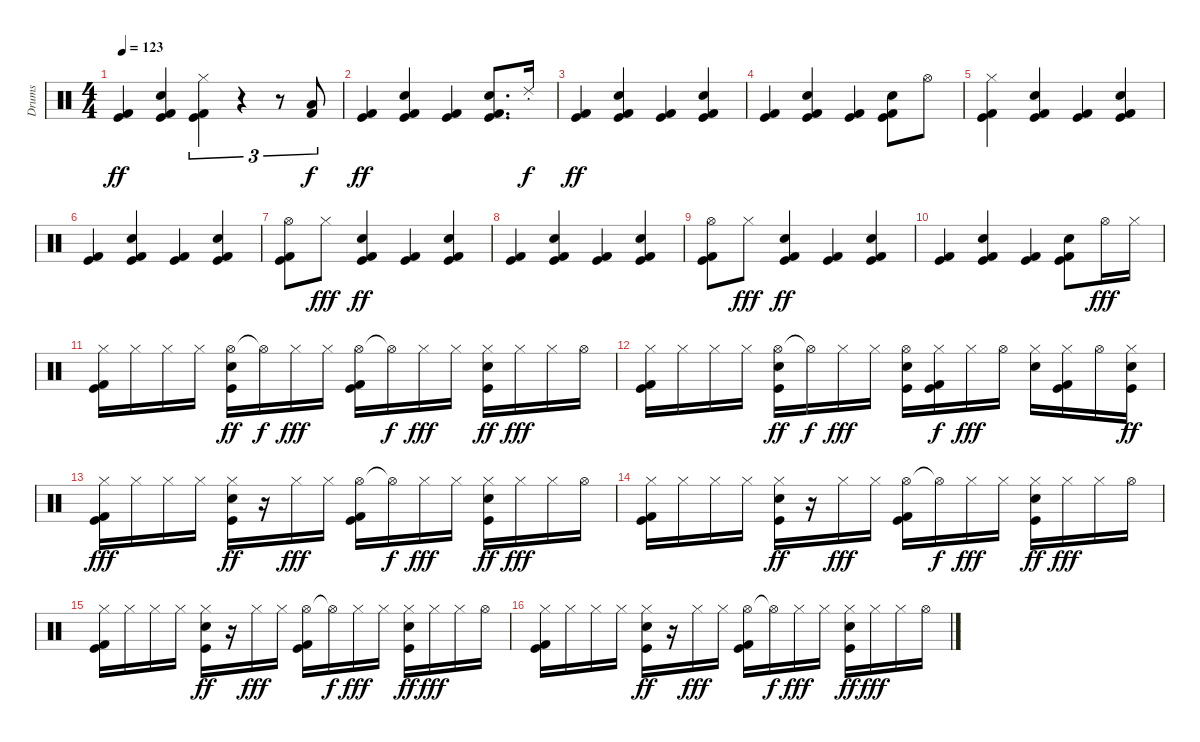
\track ("Drums" "Drums") {instrument percussion}
\staff {score}
\articulation defaults
\ts (4 4)
\tempo 123
\clef neutral
\ks c
("Kick (hit)" "Kick (hit) 2").4{dy ff} ("Snare (hit) 2" "Kick (hit)" "Kick (hit) 2").4 ("Hi-Hat (closed)" "Kick (hit)" "Kick (hit) 2").4{tu (3 2)} r.4{tu (3 2)} r.8{tu (3 2)} ("Low Floor Tom (hit)" "Kick (hit) 2").8{tu (3 2) dy f} |
("Kick (hit)" "Kick (hit) 2").4{dy ff} ("Snare (hit) 2" "Kick (hit)" "Kick (hit) 2").4 ("Kick (hit)" "Kick (hit) 2").4 ("Snare (hit) 2" "Kick (hit)" "Kick (hit) 2").8{d} "Ride (choke) 2".16{dy f} |
("Kick (hit)" "Kick (hit) 2").4{dy ff} ("Snare (hit) 2" "Kick (hit)" "Kick (hit) 2").4 ("Kick (hit)" "Kick (hit) 2").4 ("Snare (hit) 2" "Kick (hit)" "Kick (hit) 2").4 |
("Kick (hit)" "Kick (hit) 2").4 ("Snare (hit) 2" "Kick (hit)" "Kick (hit) 2").4 ("Kick (hit)" "Kick (hit) 2").4 ("Snare (hit) 2" "Kick (hit)" "Kick (hit) 2").8 "Hi-Hat (open)".8 |
("Hi-Hat (closed)" "Kick (hit)" "Kick (hit) 2").4 ("Snare (hit) 2" "Kick (hit)" "Kick (hit) 2").4 ("Kick (hit)" "Kick (hit) 2").4 ("Snare (hit) 2" "Kick (hit)" "Kick (hit) 2").4 |
("Kick (hit)" "Kick (hit) 2").4 ("Snare (hit) 2" "Kick (hit)" "Kick (hit) 2").4 ("Kick (hit)" "Kick (hit) 2").4 ("Snare (hit) 2" "Kick (hit)" "Kick (hit) 2").4 |
("Hi-Hat (open)" "Kick (hit)" "Kick (hit) 2").8 "Hi-Hat (closed)".8{dy fff} ("Snare (hit) 2" "Kick (hit)" "Kick (hit) 2").4{dy ff} ("Kick (hit)" "Kick (hit) 2").4 ("Snare (hit) 2" "Kick (hit)" "Kick (hit) 2").4 |
("Kick (hit)" "Kick (hit) 2").4 ("Snare (hit) 2" "Kick (hit)" "Kick (hit) 2").4 ("Kick (hit)" "Kick (hit) 2").4 ("Snare (hit) 2" "Kick (hit)" "Kick (hit) 2").4 |
("Hi-Hat (open)" "Kick (hit)" "Kick (hit) 2").8 "Hi-Hat (closed)".8{dy fff} ("Snare (hit) 2" "Kick (hit)" "Kick (hit) 2").4{dy ff} ("Kick (hit)" "Kick (hit) 2").4 ("Snare (hit) 2" "Kick (hit)" "Kick (hit) 2").4 |
("Kick (hit)" "Kick (hit) 2").4 ("Snare (hit) 2" "Kick (hit)" "Kick (hit) 2").4 ("Kick (hit)" "Kick (hit) 2").4 ("Snare (hit) 2" "Kick (hit)" "Kick (hit) 2").8 "Hi-Hat (open)".16{dy fff} "Hi-Hat (closed)".16 |
("Hi-Hat (closed)" "Kick (hit) 2" "Kick (hit)").16 "Hi-Hat (closed)".16 "Hi-Hat (closed)".16 "Hi-Hat (closed)".16 ("Hi-Hat (open)" "Snare (hit) 2" "Kick (hit)").16{dy ff} "Hi-Hat (open)"{t}.16{dy f} "Hi-Hat (closed)".16{dy fff} "Hi-Hat (closed)".16 ("Hi-Hat (open)" "Kick (hit) 2" "Kick (hit)").16 "Hi-Hat (open)"{t}.16{dy f} "Hi-Hat (closed)".16{dy fff} "Hi-Hat (closed)".16 ("Hi-Hat (closed)" "Snare (hit) 2" "Kick (hit)").16{dy ff} "Hi-Hat (closed)".16{dy fff} "Hi-Hat (closed)".16 "Hi-Hat (open)".16 |
("Hi-Hat (closed)" "Kick (hit) 2" "Kick (hit)").16 "Hi-Hat (closed)".16 "Hi-Hat (closed)".16 "Hi-Hat (closed)".16 ("Hi-Hat (open)" "Snare (hit) 2" "Kick (hit)").16{dy ff} "Hi-Hat (open)"{t}.16{dy f} "Hi-Hat (closed)".16{dy fff} "Hi-Hat (closed)".16 ("Hi-Hat (open)" "Snare (hit) 2" "Kick (hit)").16 ("Hi-Hat (closed)" "Kick (hit)" "Kick (hit) 2").16{dy f} "Hi-Hat (closed)".16{dy fff} "Hi-Hat (open)".16 ("Hi-Hat (closed)" "Snare (hit) 2").16 ("Hi-Hat (closed)" "Kick (hit)" "Kick (hit) 2").16 "Hi-Hat (open)".16 ("Hi-Hat (closed)" "Snare (hit) 2" "Kick (hit)").16{dy ff} |
("Hi-Hat (closed)" "Kick (hit) 2" "Kick (hit)").16{dy fff} "Hi-Hat (closed)".16 "Hi-Hat (closed)".16 "Hi-Hat (closed)".16 ("Hi-Hat (closed)" "Snare (hit) 2" "Kick (hit)").16{dy ff} r.16 "Hi-Hat (closed)".16{dy fff} "Hi-Hat (closed)".16 ("Hi-Hat (open)" "Kick (hit) 2" "Kick (hit)").16 "Hi-Hat (open)"{t}.16{dy f} "Hi-Hat (closed)".16{dy fff} "Hi-Hat (closed)".16 ("Hi-Hat (closed)" "Snare (hit) 2" "Kick (hit)").16{dy ff} "Hi-Hat (closed)".16{dy fff} "Hi-Hat (closed)".16 "Hi-Hat (open)".16 |
("Hi-Hat (closed)" "Kick (hit) 2" "Kick (hit)").16 "Hi-Hat (closed)".16 "Hi-Hat (closed)".16 "Hi-Hat (closed)".16 ("Hi-Hat (closed)" "Snare (hit) 2" "Kick (hit)").16{dy ff} r.16 "Hi-Hat (closed)".16{dy fff} "Hi-Hat (closed)".16 ("Hi-Hat (open)" "Kick (hit) 2" "Kick (hit)").16 "Hi-Hat (open)"{t}.16{dy f} "Hi-Hat (closed)".16{dy fff} "Hi-Hat (closed)".16 ("Hi-Hat (closed)" "Snare (hit) 2" "Kick (hit)").16{dy ff} "Hi-Hat (closed)".16{dy fff} "Hi-Hat (closed)".16 "Hi-Hat (open)".16 |
("Hi-Hat (closed)" "Kick (hit) 2" "Kick (hit)").16 "Hi-Hat (closed)".16 "Hi-Hat (closed)".16 "Hi-Hat (closed)".16 ("Hi-Hat (closed)" "Snare (hit) 2" "Kick (hit)").16{dy ff} r.16 "Hi-Hat (closed)".16{dy fff} "Hi-Hat (closed)".16 ("Hi-Hat (open)" "Kick (hit) 2" "Kick (hit)").16 "Hi-Hat (open)"{t}.16{dy f} "Hi-Hat (closed)".16{dy fff} "Hi-Hat (closed)".16 ("Hi-Hat (closed)" "Snare (hit) 2" "Kick (hit)").16{dy ff} "Hi-Hat (closed)".16{dy fff} "Hi-Hat (closed)".16 "Hi-Hat (open)".16 |
("Hi-Hat (closed)" "Kick (hit) 2" "Kick (hit)").16 "Hi-Hat (closed)".16 "Hi-Hat (closed)".16 "Hi-Hat (closed)".16 ("Hi-Hat (closed)" "Snare (hit) 2" "Kick (hit)").16{dy ff} r.16 "Hi-Hat (closed)".16{dy fff} "Hi-Hat (closed)".16 ("Hi-Hat (open)" "Kick (hit) 2" "Kick (hit)").16 "Hi-Hat (open)"{t}.16{dy f} "Hi-Hat (closed)".16{dy fff} "Hi-Hat (closed)".16 ("Hi-Hat (closed)" "Snare (hit) 2" "Kick (hit)").16{dy ff} "Hi-Hat (closed)".16{dy fff} "Hi-Hat (closed)".16 "Hi-Hat (open)".16
